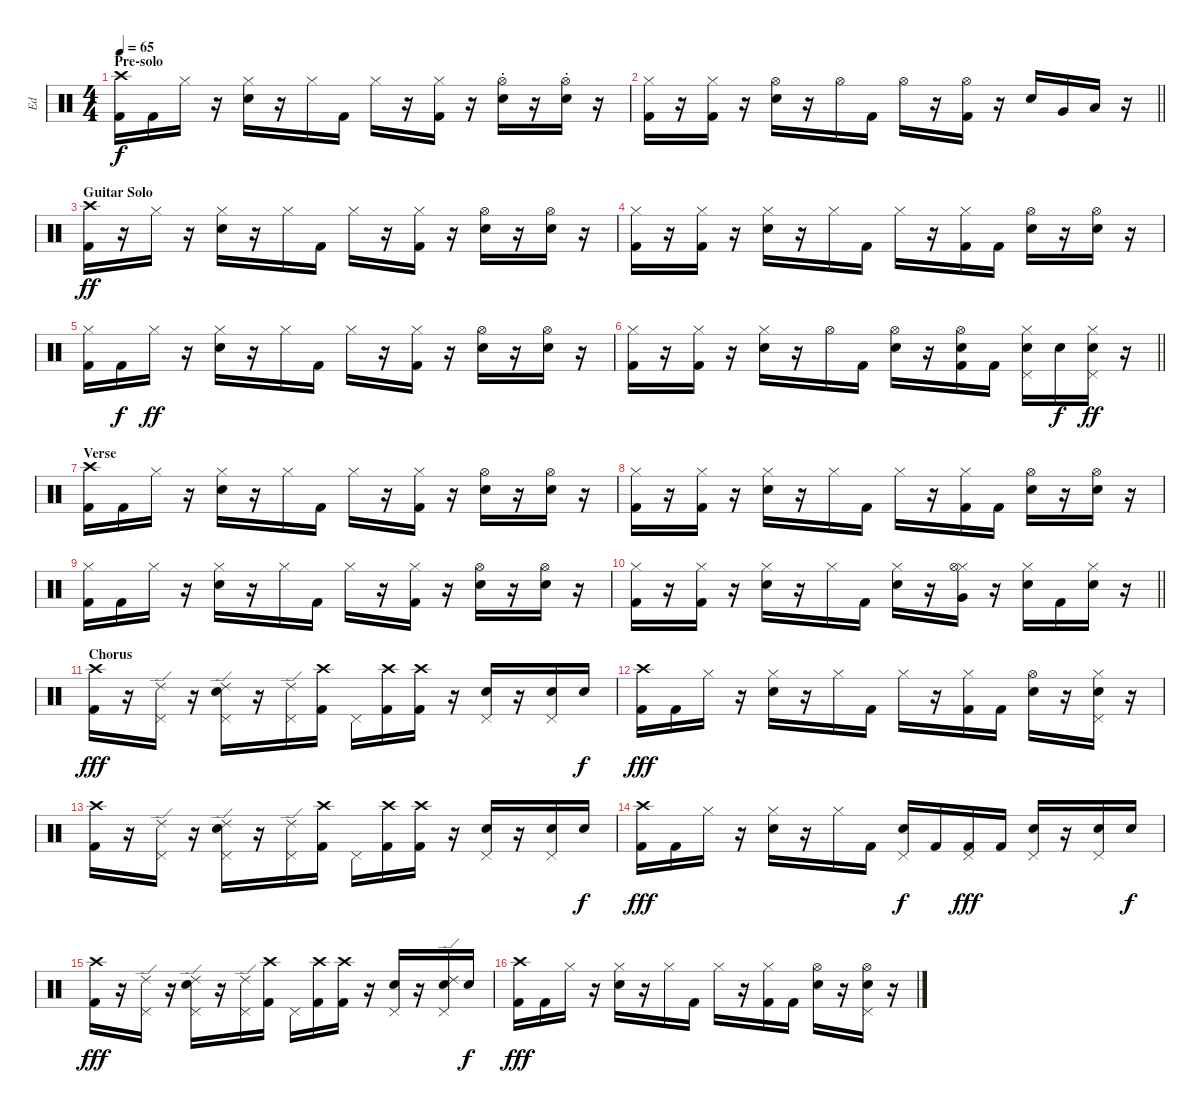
\track ("Ed" "Ed") {instrument percussion}
\staff {score}
\articulation defaults
\ts (4 4)
\section ("" "Pre-solo")
\tempo 65
\clef neutral
\ks c
("Crash high (hit)" "Kick (hit) 2").16{dy f} "Kick (hit) 2".16 "Hi-Hat (closed)".16 r.16 ("Hi-Hat (closed)" "Electric Snare (hit)").16 r.16 "Hi-Hat (closed)".16 "Kick (hit) 2".16 "Hi-Hat (closed)".16 r.16 ("Hi-Hat (closed)" "Kick (hit) 2").16 r.16 ("Hi-Hat (open)"{st} "Electric Snare (hit)").16 r.16 ("Hi-Hat (open)"{st} "Electric Snare (hit)").16 r.16 |
\barLineRight lightlight
("Hi-Hat (closed)" "Kick (hit) 2").16 r.16 ("Hi-Hat (closed)" "Kick (hit) 2").16 r.16 ("Hi-Hat (open)" "Electric Snare (hit)").16 r.16 "Hi-Hat (open)".16 "Kick (hit) 2".16 "Hi-Hat (open)".16 r.16 ("Hi-Hat (open)" "Kick (hit) 2").16 r.16 "Electric Snare (hit)".16 "Very Low Tom (hit)".16 "Low Floor Tom (hit)".16 r.16 |
\section ("" "Guitar Solo")
("Crash high (hit)" "Kick (hit) 2").16{dy ff} r.16 "Hi-Hat (closed)".16 r.16 ("Hi-Hat (closed)" "Electric Snare (hit)").16 r.16 "Hi-Hat (closed)".16 "Kick (hit) 2".16 "Hi-Hat (closed)".16 r.16 ("Hi-Hat (closed)" "Kick (hit) 2").16 r.16 ("Hi-Hat (open)" "Electric Snare (hit)").16 r.16 ("Hi-Hat (open)" "Electric Snare (hit)").16 r.16 |
("Hi-Hat (closed)" "Kick (hit) 2").16 r.16 ("Hi-Hat (closed)" "Kick (hit) 2").16 r.16 ("Hi-Hat (closed)" "Electric Snare (hit)").16 r.16 "Hi-Hat (closed)".16 "Kick (hit) 2".16 "Hi-Hat (closed)".16 r.16 ("Hi-Hat (closed)" "Kick (hit) 2").16 "Kick (hit) 2".16 ("Hi-Hat (open)" "Electric Snare (hit)").16 r.16 ("Hi-Hat (open)" "Electric Snare (hit)").16 r.16 |
("Hi-Hat (closed)" "Kick (hit) 2").16 "Kick (hit) 2".16{dy f} "Hi-Hat (closed)".16{dy ff} r.16 ("Hi-Hat (closed)" "Electric Snare (hit)").16 r.16 "Hi-Hat (closed)".16 "Kick (hit) 2".16 "Hi-Hat (closed)".16 r.16 ("Hi-Hat (closed)" "Kick (hit) 2").16 r.16 ("Hi-Hat (open)" "Electric Snare (hit)").16 r.16 ("Hi-Hat (open)" "Electric Snare (hit)").16 r.16 |
\barLineRight lightlight
("Hi-Hat (closed)" "Kick (hit) 2").16 r.16 ("Hi-Hat (closed)" "Kick (hit) 2").16 r.16 ("Hi-Hat (closed)" "Electric Snare (hit)").16 r.16 "Hi-Hat (open)".16 "Kick (hit) 2".16 ("Hi-Hat (open)" "Electric Snare (hit)").16 r.16 ("Hi-Hat (open)" "Electric Snare (hit)" "Kick (hit) 2").16 "Kick (hit) 2".16 ("Hi-Hat (closed)" "Electric Snare (hit)" "Pedal Hi-Hat (hit)").16 "Electric Snare (hit)".16{dy f} ("Hi-Hat (closed)" "Electric Snare (hit)" "Pedal Hi-Hat (hit)").16{dy ff} r.16 |
\section ("" "Verse")
("Crash high (hit)" "Kick (hit) 2").16 "Kick (hit) 2".16 "Hi-Hat (closed)".16 r.16 ("Hi-Hat (closed)" "Electric Snare (hit)").16 r.16 "Hi-Hat (closed)".16 "Kick (hit) 2".16 "Hi-Hat (closed)".16 r.16 ("Hi-Hat (closed)" "Kick (hit) 2").16 r.16 ("Hi-Hat (open)" "Electric Snare (hit)").16 r.16 ("Hi-Hat (open)" "Electric Snare (hit)").16 r.16 |
("Hi-Hat (closed)" "Kick (hit) 2").16 r.16 ("Hi-Hat (closed)" "Kick (hit) 2").16 r.16 ("Hi-Hat (closed)" "Electric Snare (hit)").16 r.16 "Hi-Hat (closed)".16 "Kick (hit) 2".16 "Hi-Hat (closed)".16 r.16 ("Hi-Hat (closed)" "Kick (hit) 2").16 "Kick (hit) 2".16 ("Hi-Hat (open)" "Electric Snare (hit)").16 r.16 ("Hi-Hat (open)" "Electric Snare (hit)").16 r.16 |
("Hi-Hat (closed)" "Kick (hit) 2").16 "Kick (hit) 2".16 "Hi-Hat (closed)".16 r.16 ("Hi-Hat (closed)" "Electric Snare (hit)").16 r.16 "Hi-Hat (closed)".16 "Kick (hit) 2".16 "Hi-Hat (closed)".16 r.16 ("Hi-Hat (closed)" "Kick (hit) 2").16 r.16 ("Hi-Hat (open)" "Electric Snare (hit)").16 r.16 ("Hi-Hat (open)" "Electric Snare (hit)").16 r.16 |
\barLineRight lightlight
("Hi-Hat (closed)" "Kick (hit) 2").16 r.16 ("Hi-Hat (closed)" "Kick (hit) 2").16 r.16 ("Hi-Hat (closed)" "Electric Snare (hit)").16 r.16 "Hi-Hat (closed)".16 "Kick (hit) 2".16 ("Hi-Hat (closed)" "Electric Snare (hit)").16 r.16 ("Hi-Hat (closed)" "Hi-Hat (open)" "Very Low Tom (hit)").16 r.16 ("Hi-Hat (closed)" "Electric Snare (hit)").16 "Kick (hit) 2".16 ("Hi-Hat (closed)" "Electric Snare (hit)").16 r.16 |
\section ("" "Chorus")
("Crash high (hit)" "Kick (hit) 2").16{dy fff} r.16 ("Ride (edge) 2" "Pedal Hi-Hat (hit)").16 r.16 ("Ride (edge) 2" "Electric Snare (hit)" "Pedal Hi-Hat (hit)").16 r.16 ("Ride (edge) 2" "Pedal Hi-Hat (hit)").16 ("Crash high (hit)" "Kick (hit) 2").16 "Pedal Hi-Hat (hit)".16 ("Crash high (hit)" "Kick (hit) 2").16 ("Crash high (hit)" "Kick (hit) 2").16 r.16 ("Electric Snare (hit)" "Pedal Hi-Hat (hit)").16 r.16 ("Electric Snare (hit)" "Pedal Hi-Hat (hit)").16 "Electric Snare (hit)".16{dy f} |
("Crash high (hit)" "Kick (hit) 2").16{dy fff} "Kick (hit) 2".16 "Hi-Hat (closed)".16 r.16 ("Hi-Hat (closed)" "Electric Snare (hit)").16 r.16 "Hi-Hat (closed)".16 "Kick (hit) 2".16 "Hi-Hat (closed)".16 r.16 ("Hi-Hat (closed)" "Kick (hit) 2").16 "Kick (hit) 2".16 ("Hi-Hat (open)" "Electric Snare (hit)").16 r.16 ("Hi-Hat (closed)" "Electric Snare (hit)" "Pedal Hi-Hat (hit)").16 r.16 |
("Crash high (hit)" "Kick (hit) 2").16 r.16 ("Ride (edge) 2" "Pedal Hi-Hat (hit)").16 r.16 ("Ride (edge) 2" "Electric Snare (hit)" "Pedal Hi-Hat (hit)").16 r.16 ("Ride (edge) 2" "Pedal Hi-Hat (hit)").16 ("Crash high (hit)" "Kick (hit) 2").16 "Pedal Hi-Hat (hit)".16 ("Crash high (hit)" "Kick (hit) 2").16 ("Crash high (hit)" "Kick (hit) 2").16 r.16 ("Electric Snare (hit)" "Pedal Hi-Hat (hit)").16 r.16 ("Electric Snare (hit)" "Pedal Hi-Hat (hit)").16 "Electric Snare (hit)".16{dy f} |
("Crash high (hit)" "Kick (hit) 2").16{dy fff} "Kick (hit) 2".16 "Hi-Hat (closed)".16 r.16 ("Hi-Hat (closed)" "Electric Snare (hit)").16 r.16 "Hi-Hat (closed)".16 "Kick (hit) 2".16 ("Pedal Hi-Hat (hit)" "Electric Snare (hit)").16{dy f} "Kick (hit) 2".16 ("Pedal Hi-Hat (hit)" "Kick (hit) 2").16{dy fff} "Kick (hit) 2".16 ("Electric Snare (hit)" "Pedal Hi-Hat (hit)").16 r.16 ("Electric Snare (hit)" "Pedal Hi-Hat (hit)").16 "Electric Snare (hit)".16{dy f} |
("Crash high (hit)" "Kick (hit) 2").16{dy fff} r.16 ("Ride (edge) 2" "Pedal Hi-Hat (hit)").16 r.16 ("Ride (edge) 2" "Electric Snare (hit)" "Pedal Hi-Hat (hit)").16 r.16 ("Ride (edge) 2" "Pedal Hi-Hat (hit)").16 ("Crash high (hit)" "Kick (hit) 2").16 "Pedal Hi-Hat (hit)".16 ("Crash high (hit)" "Kick (hit) 2").16 ("Crash high (hit)" "Kick (hit) 2").16 r.16 ("Electric Snare (hit)" "Pedal Hi-Hat (hit)").16 r.16 ("Ride (edge) 2" "Electric Snare (hit)" "Pedal Hi-Hat (hit)").16 "Electric Snare (hit)".16{dy f} |
("Crash high (hit)" "Kick (hit) 2").16{dy fff} "Kick (hit) 2".16 "Hi-Hat (closed)".16 r.16 ("Hi-Hat (closed)" "Electric Snare (hit)").16 r.16 "Hi-Hat (closed)".16 "Kick (hit) 2".16 "Hi-Hat (closed)".16 r.16 ("Hi-Hat (closed)" "Kick (hit) 2").16 "Kick (hit) 2".16 ("Hi-Hat (open)" "Electric Snare (hit)").16 r.16 ("Hi-Hat (open)" "Electric Snare (hit)" "Pedal Hi-Hat (hit)").16 r.16
